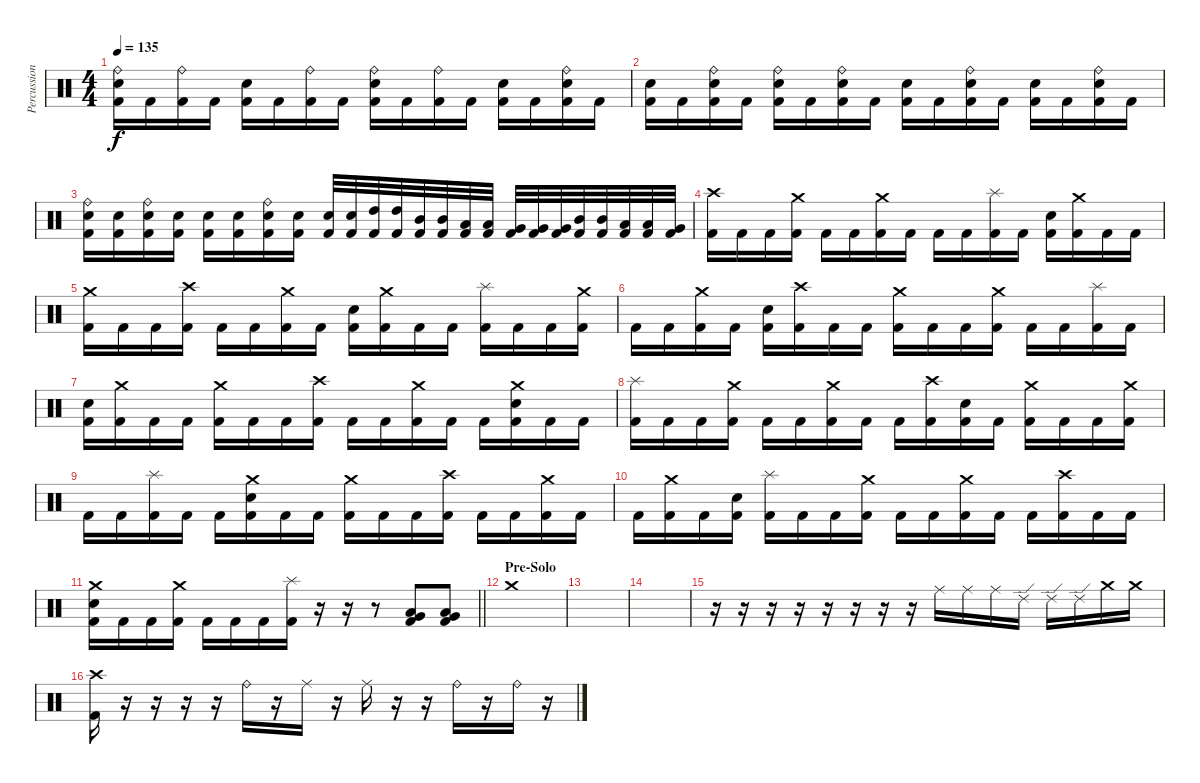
\track ("Percussion" "Percussion") {instrument percussion}
\staff {score}
\articulation defaults
\ts (4 4)
\tempo 135
\clef neutral
\ks c
("Ride (bell)" "Electric Snare (hit)" "Kick (hit) 2").16{dy f} "Kick (hit) 2".16 ("Ride (bell)" "Kick (hit) 2").16 "Kick (hit) 2".16 ("Electric Snare (hit)" "Kick (hit) 2").16 "Kick (hit) 2".16 ("Ride (bell)" "Kick (hit) 2").16 "Kick (hit) 2".16 ("Ride (bell)" "Electric Snare (hit)" "Kick (hit) 2").16 "Kick (hit) 2".16 ("Ride (bell)" "Kick (hit) 2").16 "Kick (hit) 2".16 ("Electric Snare (hit)" "Kick (hit) 2").16 "Kick (hit) 2".16 ("Ride (bell)" "Electric Snare (hit)" "Kick (hit) 2").16 "Kick (hit) 2".16 |
("Electric Snare (hit)" "Kick (hit) 2").16 "Kick (hit) 2".16 ("Ride (bell)" "Electric Snare (hit)" "Kick (hit) 2").16 "Kick (hit) 2".16 ("Ride (bell)" "Electric Snare (hit)" "Kick (hit) 2").16 "Kick (hit) 2".16 ("Ride (bell)" "Electric Snare (hit)" "Kick (hit) 2").16 "Kick (hit) 2".16 ("Electric Snare (hit)" "Kick (hit) 2").16 "Kick (hit) 2".16 ("Ride (bell)" "Electric Snare (hit)" "Kick (hit) 2").16 "Kick (hit) 2".16 ("Electric Snare (hit)" "Kick (hit) 2").16 "Kick (hit) 2".16 ("Ride (bell)" "Electric Snare (hit)" "Kick (hit) 2").16 "Kick (hit) 2".16 |
("Ride (bell)" "Electric Snare (hit)" "Kick (hit) 2").16 ("Electric Snare (hit)" "Kick (hit) 2").16 ("Ride (bell)" "Electric Snare (hit)" "Kick (hit) 2").16 ("Electric Snare (hit)" "Kick (hit) 2").16 ("Electric Snare (hit)" "Kick (hit) 2").16 ("Electric Snare (hit)" "Kick (hit) 2").16 ("Ride (bell)" "Electric Snare (hit)" "Kick (hit) 2").16 ("Electric Snare (hit)" "Kick (hit) 2").16 ("Electric Snare (hit)" "Kick (hit) 2").32 ("Electric Snare (hit)" "Kick (hit) 2").32 ("High Tom (hit)" "Kick (hit) 2").32 ("High Tom (hit)" "Kick (hit) 2").32 ("Mid Tom (hit)" "Kick (hit) 2").32 ("Mid Tom (hit)" "Kick (hit) 2").32 ("Low Tom (hit)" "Kick (hit) 2").32 ("Low Tom (hit)" "Kick (hit) 2").32 ("Very Low Tom (hit)" "Kick (hit) 2").32 ("Very Low Tom (hit)" "Kick (hit) 2").32 ("Very Low Tom (hit)" "Kick (hit) 2").32 ("Mid Tom (hit)" "Kick (hit) 2").32 ("Mid Tom (hit)" "Kick (hit) 2").32 ("Low Tom (hit)" "Kick (hit) 2").32 ("Low Tom (hit)" "Kick (hit) 2").32 ("Very Low Tom (hit)" "Kick (hit) 2").32 |
("Crash high (hit)" "Kick (hit) 2").16 "Kick (hit) 2".16 "Kick (hit) 2".16 ("Crash medium (hit)" "Kick (hit) 2").16 "Kick (hit) 2".16 "Kick (hit) 2".16 ("Crash medium (hit)" "Kick (hit) 2").16 "Kick (hit) 2".16 "Kick (hit) 2".16 "Kick (hit) 2".16 ("Splash (hit)" "Kick (hit) 2").16 "Kick (hit) 2".16 ("Electric Snare (hit)" "Kick (hit) 2").16 ("Crash medium (hit)" "Kick (hit) 2").16 "Kick (hit) 2".16 "Kick (hit) 2".16 |
("Crash medium (hit)" "Kick (hit) 2").16 "Kick (hit) 2".16 "Kick (hit) 2".16 ("Crash high (hit)" "Kick (hit) 2").16 "Kick (hit) 2".16 "Kick (hit) 2".16 ("Crash medium (hit)" "Kick (hit) 2").16 "Kick (hit) 2".16 ("Electric Snare (hit)" "Kick (hit) 2").16 ("Crash medium (hit)" "Kick (hit) 2").16 "Kick (hit) 2".16 "Kick (hit) 2".16 ("Splash (hit)" "Kick (hit) 2").16 "Kick (hit) 2".16 "Kick (hit) 2".16 ("Crash medium (hit)" "Kick (hit) 2").16 |
"Kick (hit) 2".16 "Kick (hit) 2".16 ("Crash medium (hit)" "Kick (hit) 2").16 "Kick (hit) 2".16 ("Electric Snare (hit)" "Kick (hit) 2").16 ("Crash high (hit)" "Kick (hit) 2").16 "Kick (hit) 2".16 "Kick (hit) 2".16 ("Crash medium (hit)" "Kick (hit) 2").16 "Kick (hit) 2".16 "Kick (hit) 2".16 ("Crash medium (hit)" "Kick (hit) 2").16 "Kick (hit) 2".16 "Kick (hit) 2".16 ("Splash (hit)" "Kick (hit) 2").16 "Kick (hit) 2".16 |
("Electric Snare (hit)" "Kick (hit) 2").16 ("Crash medium (hit)" "Kick (hit) 2").16 "Kick (hit) 2".16 "Kick (hit) 2".16 ("Crash medium (hit)" "Kick (hit) 2").16 "Kick (hit) 2".16 "Kick (hit) 2".16 ("Crash high (hit)" "Kick (hit) 2").16 "Kick (hit) 2".16 "Kick (hit) 2".16 ("Crash medium (hit)" "Kick (hit) 2").16 "Kick (hit) 2".16 "Kick (hit) 2".16 ("Crash medium (hit)" "Electric Snare (hit)" "Kick (hit) 2").16 "Kick (hit) 2".16 "Kick (hit) 2".16 |
("Splash (hit)" "Kick (hit) 2").16 "Kick (hit) 2".16 "Kick (hit) 2".16 ("Crash medium (hit)" "Kick (hit) 2").16 "Kick (hit) 2".16 "Kick (hit) 2".16 ("Crash medium (hit)" "Kick (hit) 2").16 "Kick (hit) 2".16 "Kick (hit) 2".16 ("Crash high (hit)" "Kick (hit) 2").16 ("Electric Snare (hit)" "Kick (hit) 2").16 "Kick (hit) 2".16 ("Crash medium (hit)" "Kick (hit) 2").16 "Kick (hit) 2".16 "Kick (hit) 2".16 ("Crash medium (hit)" "Kick (hit) 2").16 |
"Kick (hit) 2".16 "Kick (hit) 2".16 ("Splash (hit)" "Kick (hit) 2").16 "Kick (hit) 2".16 "Kick (hit) 2".16 ("Crash medium (hit)" "Electric Snare (hit)" "Kick (hit) 2").16 "Kick (hit) 2".16 "Kick (hit) 2".16 ("Crash medium (hit)" "Kick (hit) 2").16 "Kick (hit) 2".16 "Kick (hit) 2".16 ("Crash high (hit)" "Kick (hit) 2").16 "Kick (hit) 2".16 "Kick (hit) 2".16 ("Crash medium (hit)" "Kick (hit) 2").16 "Kick (hit) 2".16 |
"Kick (hit) 2".16 ("Crash medium (hit)" "Kick (hit) 2").16 "Kick (hit) 2".16 ("Electric Snare (hit)" "Kick (hit) 2").16 ("Splash (hit)" "Kick (hit) 2").16 "Kick (hit) 2".16 "Kick (hit) 2".16 ("Crash medium (hit)" "Kick (hit) 2").16 "Kick (hit) 2".16 "Kick (hit) 2".16 ("Crash medium (hit)" "Kick (hit) 2").16 "Kick (hit) 2".16 "Kick (hit) 2".16 ("Crash high (hit)" "Kick (hit) 2").16 "Kick (hit) 2".16 "Kick (hit) 2".16 |
\barLineRight lightlight
("Crash medium (hit)" "Electric Snare (hit)" "Kick (hit) 2").16 "Kick (hit) 2".16 "Kick (hit) 2".16 ("Crash medium (hit)" "Kick (hit) 2").16 "Kick (hit) 2".16 "Kick (hit) 2".16 "Kick (hit) 2".16 ("Splash (hit)" "Kick (hit) 2").16 r.16 r.16 r.8 ("Low Tom (hit)" "Very Low Tom (hit)" "Kick (hit) 2").8 ("Low Tom (hit)" "Very Low Tom (hit)" "Kick (hit) 2").8 |
\section ("" "Pre-Solo")
"Crash medium (hit)".1 |
|
|
r.16 r.16 r.16 r.16 r.16 r.16 r.16 r.16 "Ride (middle)".16 "Ride (middle)".16 "Ride (middle)".16 "Ride (edge) 2".16 "Ride (edge) 2".16 "Ride (edge) 2".16 "Crash medium (hit)".16 "Crash medium (hit)".16 |
("Crash high (hit)" "Kick (hit) 2").16 r.16 r.16 r.16 r.16 "Ride (bell)".16 r.16 "Ride (middle)".16 r.16 "Ride (middle)".16 r.16 r.16 "Ride (bell)".16 r.16 "Ride (bell)".16 r.16
